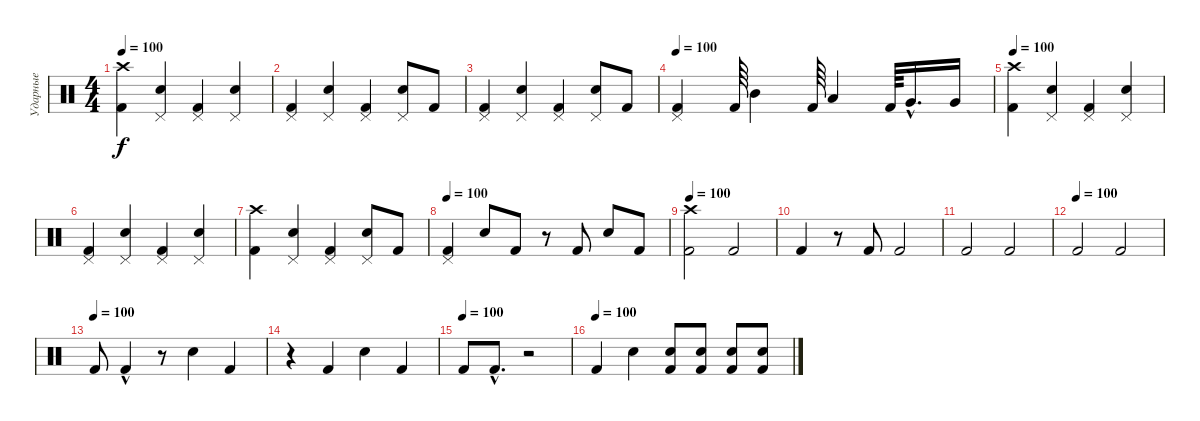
\track ("Ударные" "Ударные") {instrument percussion}
\staff {score}
\articulation defaults
\ts (4 4)
\tempo 100
\clef neutral
\ks c
("Crash high (hit)" "Kick (hit) 2").4{dy f} ("Pedal Hi-Hat (hit)" "Electric Snare (hit)").4 ("Pedal Hi-Hat (hit)" "Kick (hit) 2").4 ("Pedal Hi-Hat (hit)" "Electric Snare (hit)").4 |
("Pedal Hi-Hat (hit)" "Kick (hit) 2").4 ("Pedal Hi-Hat (hit)" "Electric Snare (hit)").4 ("Pedal Hi-Hat (hit)" "Kick (hit) 2").4 ("Pedal Hi-Hat (hit)" "Electric Snare (hit)").8 "Kick (hit) 2".8 |
("Pedal Hi-Hat (hit)" "Kick (hit) 2").4 ("Pedal Hi-Hat (hit)" "Electric Snare (hit)").4 ("Pedal Hi-Hat (hit)" "Kick (hit) 2").4 ("Pedal Hi-Hat (hit)" "Electric Snare (hit)").8 "Kick (hit) 2".8 |
\tempo 100
("Pedal Hi-Hat (hit)" "Kick (hit) 2").4 "Kick (hit) 2".64 "Mid Tom (hit)".4 "Kick (hit) 2".64 "Low Tom (hit)".4 "Kick (hit) 2".64 "Very Low Tom (hit)"{hac}.16{d} "Very Low Tom (hit)".16{volume 16} |
\tempo 100
("Crash high (hit)" "Kick (hit) 2").4 ("Pedal Hi-Hat (hit)" "Electric Snare (hit)").4 ("Pedal Hi-Hat (hit)" "Kick (hit) 2").4 ("Pedal Hi-Hat (hit)" "Electric Snare (hit)").4 |
("Pedal Hi-Hat (hit)" "Kick (hit) 2").4 ("Pedal Hi-Hat (hit)" "Electric Snare (hit)").4 ("Pedal Hi-Hat (hit)" "Kick (hit) 2").4 ("Pedal Hi-Hat (hit)" "Electric Snare (hit)").4 |
("Crash high (hit)" "Kick (hit) 2").4 ("Pedal Hi-Hat (hit)" "Electric Snare (hit)").4 ("Pedal Hi-Hat (hit)" "Kick (hit) 2").4 ("Pedal Hi-Hat (hit)" "Electric Snare (hit)").8 "Kick (hit) 2".8 |
\tempo 100
("Pedal Hi-Hat (hit)" "Kick (hit) 2").4{volume 16} "Electric Snare (hit)".8 "Kick (hit) 2".8 r.8 "Kick (hit) 2".8 "Electric Snare (hit)".8 "Kick (hit) 2".8 |
\tempo 100
("Crash high (hit)" "Kick (hit) 2").2 "Kick (hit) 2".2 |
"Kick (hit) 2".4 r.8 "Kick (hit) 2".8 "Kick (hit) 2".2 |
"Kick (hit) 2".2 "Kick (hit) 2".2 |
\tempo (100)
"Kick (hit) 2".2 "Kick (hit) 2".2 |
\tempo (100)
"Kick (hit) 2".8 "Kick (hit) 2"{hac}.4 r.8 "Electric Snare (hit)".4 "Kick (hit) 2".4 |
r.4 "Kick (hit) 2".4 "Electric Snare (hit)".4 "Kick (hit) 2".4 |
\tempo (100)
"Kick (hit) 2".8 "Kick (hit) 2"{hac}.8{d} r.2 |
\tempo (100)
"Kick (hit) 2".4 "Electric Snare (hit)".4 ("Kick (hit) 2" "Electric Snare (hit)").8{volume 10} ("Kick (hit) 2" "Electric Snare (hit)").8{volume 12} ("Kick (hit) 2" "Electric Snare (hit)").8{volume 14} ("Kick (hit) 2" "Electric Snare (hit)").8
